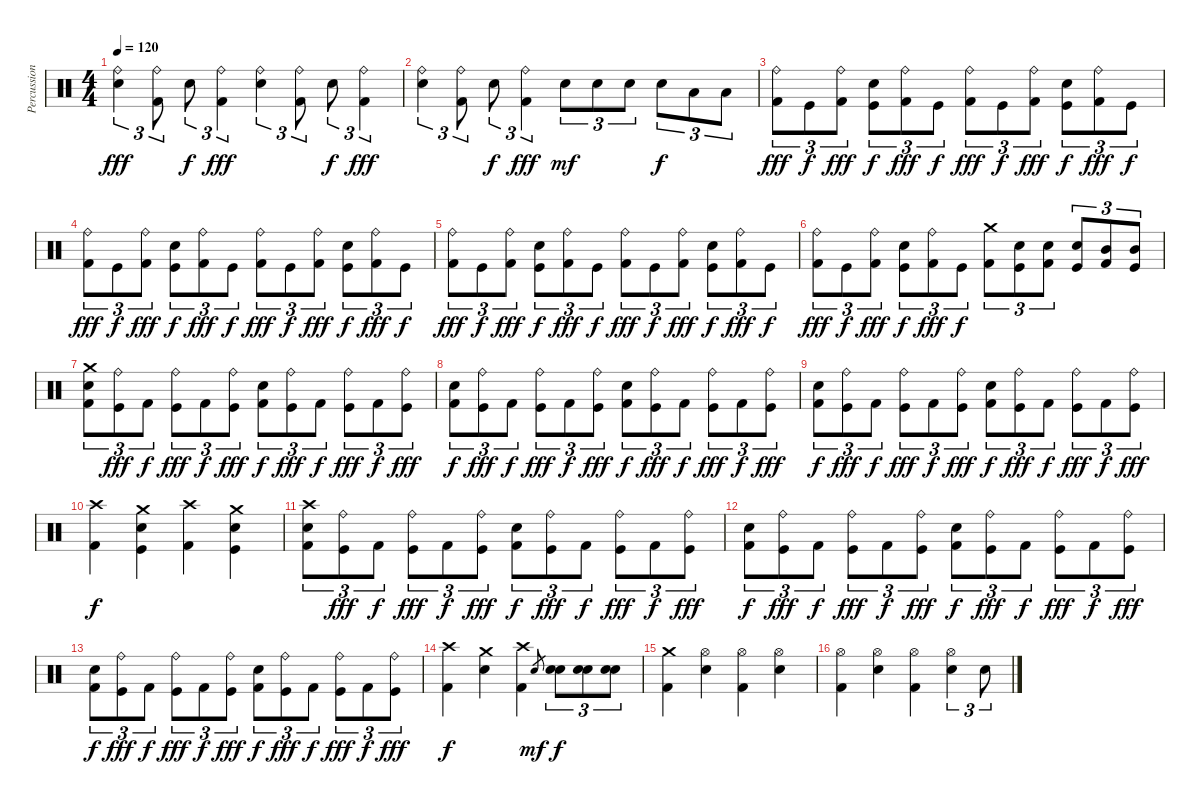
\track ("Percussions" "Percussion") {instrument percussion}
\staff {score}
\articulation defaults
\ts (4 4)
\tempo 120
\clef neutral
\ks c
("Electric Snare (hit)" "Ride (bell)").4{tu (3 2) dy fff} ("Kick (hit) 2" "Ride (bell)").8{tu (3 2)} "Electric Snare (hit)".8{tu (3 2) dy f} ("Kick (hit) 2" "Ride (bell)").4{tu (3 2) dy fff} ("Electric Snare (hit)" "Ride (bell)").4{tu (3 2)} ("Kick (hit) 2" "Ride (bell)").8{tu (3 2)} "Electric Snare (hit)".8{tu (3 2) dy f} ("Kick (hit) 2" "Ride (bell)").4{tu (3 2) dy fff} |
("Electric Snare (hit)" "Ride (bell)").4{tu (3 2)} ("Kick (hit) 2" "Ride (bell)").8{tu (3 2)} "Electric Snare (hit)".8{tu (3 2) dy f} ("Kick (hit) 2" "Ride (bell)").4{tu (3 2) dy fff} "Electric Snare (hit)".8{tu (3 2) dy mf} "Electric Snare (hit)".8{tu (3 2)} "Electric Snare (hit)".8{tu (3 2)} "Electric Snare (hit)".8{tu (3 2) dy f} "Low Tom (hit)".8{tu (3 2)} "Low Tom (hit)".8{tu (3 2)} |
("Kick (hit) 2" "Ride (bell)").8{tu (3 2) dy fff} "Kick (hit)".8{tu (3 2) dy f} ("Kick (hit) 2" "Ride (bell)").8{tu (3 2) dy fff} ("Kick (hit)" "Electric Snare (hit)").8{tu (3 2) dy f} ("Kick (hit) 2" "Ride (bell)").8{tu (3 2) dy fff} "Kick (hit)".8{tu (3 2) dy f} ("Kick (hit) 2" "Ride (bell)").8{tu (3 2) dy fff} "Kick (hit)".8{tu (3 2) dy f} ("Kick (hit) 2" "Ride (bell)").8{tu (3 2) dy fff} ("Kick (hit)" "Electric Snare (hit)").8{tu (3 2) dy f} ("Kick (hit) 2" "Ride (bell)").8{tu (3 2) dy fff} "Kick (hit)".8{tu (3 2) dy f} |
("Kick (hit) 2" "Ride (bell)").8{tu (3 2) dy fff} "Kick (hit)".8{tu (3 2) dy f} ("Kick (hit) 2" "Ride (bell)").8{tu (3 2) dy fff} ("Kick (hit)" "Electric Snare (hit)").8{tu (3 2) dy f} ("Kick (hit) 2" "Ride (bell)").8{tu (3 2) dy fff} "Kick (hit)".8{tu (3 2) dy f} ("Kick (hit) 2" "Ride (bell)").8{tu (3 2) dy fff} "Kick (hit)".8{tu (3 2) dy f} ("Kick (hit) 2" "Ride (bell)").8{tu (3 2) dy fff} ("Kick (hit)" "Electric Snare (hit)").8{tu (3 2) dy f} ("Kick (hit) 2" "Ride (bell)").8{tu (3 2) dy fff} "Kick (hit)".8{tu (3 2) dy f} |
("Kick (hit) 2" "Ride (bell)").8{tu (3 2) dy fff} "Kick (hit)".8{tu (3 2) dy f} ("Kick (hit) 2" "Ride (bell)").8{tu (3 2) dy fff} ("Kick (hit)" "Electric Snare (hit)").8{tu (3 2) dy f} ("Kick (hit) 2" "Ride (bell)").8{tu (3 2) dy fff} "Kick (hit)".8{tu (3 2) dy f} ("Kick (hit) 2" "Ride (bell)").8{tu (3 2) dy fff} "Kick (hit)".8{tu (3 2) dy f} ("Kick (hit) 2" "Ride (bell)").8{tu (3 2) dy fff} ("Kick (hit)" "Electric Snare (hit)").8{tu (3 2) dy f} ("Kick (hit) 2" "Ride (bell)").8{tu (3 2) dy fff} "Kick (hit)".8{tu (3 2) dy f} |
("Kick (hit) 2" "Ride (bell)").8{tu (3 2) dy fff} "Kick (hit)".8{tu (3 2) dy f} ("Kick (hit) 2" "Ride (bell)").8{tu (3 2) dy fff} ("Kick (hit)" "Electric Snare (hit)").8{tu (3 2) dy f} ("Kick (hit) 2" "Ride (bell)").8{tu (3 2) dy fff} "Kick (hit)".8{tu (3 2) dy f} ("Kick (hit) 2" "Crash medium (hit)").8{tu (3 2)} ("Kick (hit)" "Electric Snare (hit)").8{tu (3 2)} ("Kick (hit) 2" "Electric Snare (hit)").8{tu (3 2)} ("Kick (hit)" "Electric Snare (hit)").8{tu (3 2)} ("Kick (hit) 2" "Mid Tom (hit)").8{tu (3 2)} ("Kick (hit)" "Mid Tom (hit)").8{tu (3 2)} |
("Kick (hit) 2" "Electric Snare (hit)" "Crash medium (hit)").8{tu (3 2)} ("Kick (hit)" "Ride (bell)").8{tu (3 2) dy fff} "Kick (hit) 2".8{tu (3 2) dy f} ("Kick (hit)" "Ride (bell)").8{tu (3 2) dy fff} "Kick (hit) 2".8{tu (3 2) dy f} ("Kick (hit)" "Ride (bell)").8{tu (3 2) dy fff} ("Kick (hit) 2" "Electric Snare (hit)").8{tu (3 2) dy f} ("Kick (hit)" "Ride (bell)").8{tu (3 2) dy fff} "Kick (hit) 2".8{tu (3 2) dy f} ("Kick (hit)" "Ride (bell)").8{tu (3 2) dy fff} "Kick (hit) 2".8{tu (3 2) dy f} ("Kick (hit)" "Ride (bell)").8{tu (3 2) dy fff} |
("Kick (hit) 2" "Electric Snare (hit)").8{tu (3 2) dy f} ("Kick (hit)" "Ride (bell)").8{tu (3 2) dy fff} "Kick (hit) 2".8{tu (3 2) dy f} ("Kick (hit)" "Ride (bell)").8{tu (3 2) dy fff} "Kick (hit) 2".8{tu (3 2) dy f} ("Kick (hit)" "Ride (bell)").8{tu (3 2) dy fff} ("Kick (hit) 2" "Electric Snare (hit)").8{tu (3 2) dy f} ("Kick (hit)" "Ride (bell)").8{tu (3 2) dy fff} "Kick (hit) 2".8{tu (3 2) dy f} ("Kick (hit)" "Ride (bell)").8{tu (3 2) dy fff} "Kick (hit) 2".8{tu (3 2) dy f} ("Kick (hit)" "Ride (bell)").8{tu (3 2) dy fff} |
("Kick (hit) 2" "Electric Snare (hit)").8{tu (3 2) dy f} ("Kick (hit)" "Ride (bell)").8{tu (3 2) dy fff} "Kick (hit) 2".8{tu (3 2) dy f} ("Kick (hit)" "Ride (bell)").8{tu (3 2) dy fff} "Kick (hit) 2".8{tu (3 2) dy f} ("Kick (hit)" "Ride (bell)").8{tu (3 2) dy fff} ("Kick (hit) 2" "Electric Snare (hit)").8{tu (3 2) dy f} ("Kick (hit)" "Ride (bell)").8{tu (3 2) dy fff} "Kick (hit) 2".8{tu (3 2) dy f} ("Kick (hit)" "Ride (bell)").8{tu (3 2) dy fff} "Kick (hit) 2".8{tu (3 2) dy f} ("Kick (hit)" "Ride (bell)").8{tu (3 2) dy fff} |
("Kick (hit) 2" "Crash high (hit)").4{dy f} ("Kick (hit)" "Electric Snare (hit)" "Crash medium (hit)").4 ("Kick (hit) 2" "Crash high (hit)").4 ("Kick (hit)" "Electric Snare (hit)" "Crash medium (hit)").4 |
("Kick (hit) 2" "Electric Snare (hit)" "Crash high (hit)").8{tu (3 2)} ("Kick (hit)" "Ride (bell)").8{tu (3 2) dy fff} "Kick (hit) 2".8{tu (3 2) dy f} ("Kick (hit)" "Ride (bell)").8{tu (3 2) dy fff} "Kick (hit) 2".8{tu (3 2) dy f} ("Kick (hit)" "Ride (bell)").8{tu (3 2) dy fff} ("Kick (hit) 2" "Electric Snare (hit)").8{tu (3 2) dy f} ("Kick (hit)" "Ride (bell)").8{tu (3 2) dy fff} "Kick (hit) 2".8{tu (3 2) dy f} ("Kick (hit)" "Ride (bell)").8{tu (3 2) dy fff} "Kick (hit) 2".8{tu (3 2) dy f} ("Kick (hit)" "Ride (bell)").8{tu (3 2) dy fff} |
("Kick (hit) 2" "Electric Snare (hit)").8{tu (3 2) dy f} ("Kick (hit)" "Ride (bell)").8{tu (3 2) dy fff} "Kick (hit) 2".8{tu (3 2) dy f} ("Kick (hit)" "Ride (bell)").8{tu (3 2) dy fff} "Kick (hit) 2".8{tu (3 2) dy f} ("Kick (hit)" "Ride (bell)").8{tu (3 2) dy fff} ("Kick (hit) 2" "Electric Snare (hit)").8{tu (3 2) dy f} ("Kick (hit)" "Ride (bell)").8{tu (3 2) dy fff} "Kick (hit) 2".8{tu (3 2) dy f} ("Kick (hit)" "Ride (bell)").8{tu (3 2) dy fff} "Kick (hit) 2".8{tu (3 2) dy f} ("Kick (hit)" "Ride (bell)").8{tu (3 2) dy fff} |
("Kick (hit) 2" "Electric Snare (hit)").8{tu (3 2) dy f} ("Kick (hit)" "Ride (bell)").8{tu (3 2) dy fff} "Kick (hit) 2".8{tu (3 2) dy f} ("Kick (hit)" "Ride (bell)").8{tu (3 2) dy fff} "Kick (hit) 2".8{tu (3 2) dy f} ("Kick (hit)" "Ride (bell)").8{tu (3 2) dy fff} ("Kick (hit) 2" "Electric Snare (hit)").8{tu (3 2) dy f} ("Kick (hit)" "Ride (bell)").8{tu (3 2) dy fff} "Kick (hit) 2".8{tu (3 2) dy f} ("Kick (hit)" "Ride (bell)").8{tu (3 2) dy fff} "Kick (hit) 2".8{tu (3 2) dy f} ("Kick (hit)" "Ride (bell)").8{tu (3 2) dy fff} |
("Kick (hit) 2" "Crash high (hit)").4{dy f} ("Electric Snare (hit)" "Crash medium (hit)").4 ("Kick (hit) 2" "Crash high (hit)").4 "Electric Snare (hit)".8{gr dy mf} ("Electric Snare (hit)" "Snare (hit) 2").8{tu (3 2) dy f} ("Electric Snare (hit)" "Snare (hit) 2").8{tu (3 2)} ("Electric Snare (hit)" "Snare (hit) 2").8{tu (3 2)} |
("Kick (hit) 2" "Crash medium (hit)").4 ("Electric Snare (hit)" "Hi-Hat (open)").4 ("Kick (hit) 2" "Hi-Hat (open)").4 ("Electric Snare (hit)" "Hi-Hat (open)").4 |
("Kick (hit) 2" "Hi-Hat (open)").4 ("Electric Snare (hit)" "Hi-Hat (open)").4 ("Kick (hit) 2" "Hi-Hat (open)").4 ("Electric Snare (hit)" "Hi-Hat (open)").4{tu (3 2)} "Electric Snare (hit)".8{tu (3 2)}
